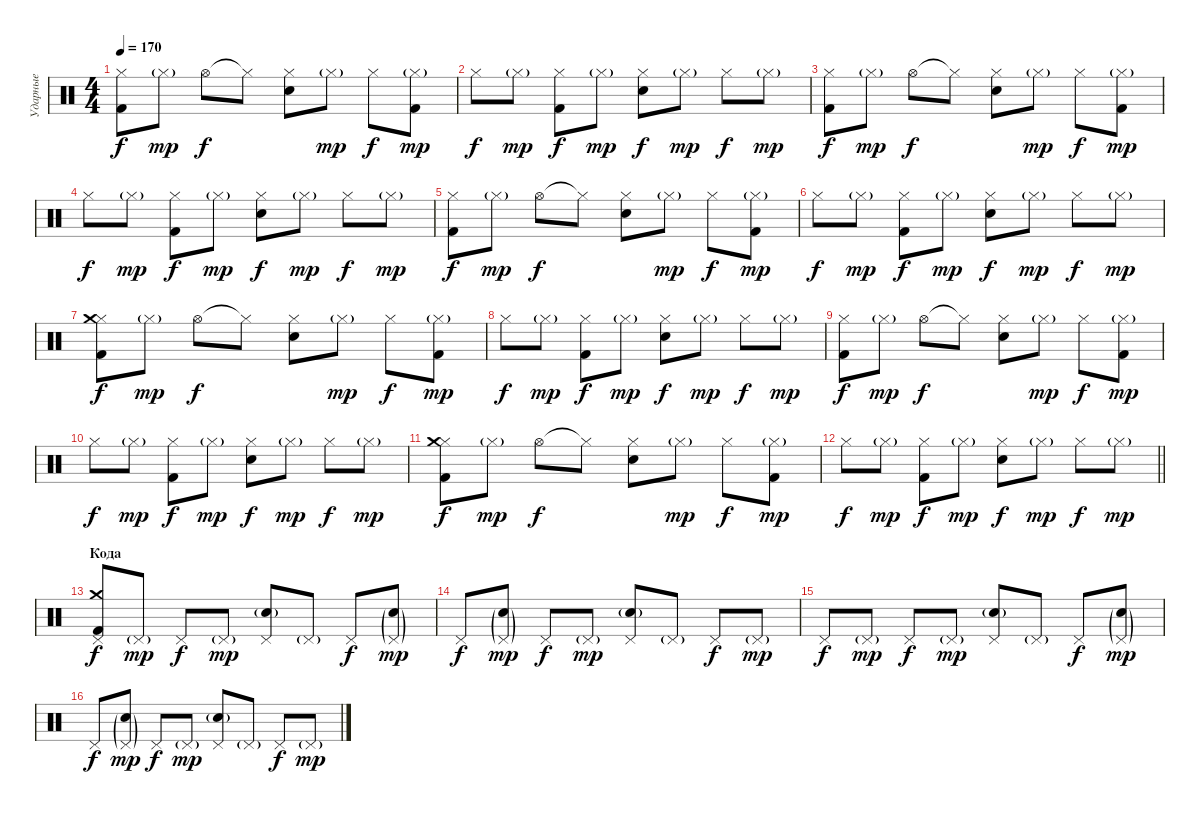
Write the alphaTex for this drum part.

\track ("Ударные" "Ударные") {instrument percussion}
\staff {score}
\articulation defaults
\ts (4 4)
\tempo 170
\clef neutral
\ks c
("Kick (hit) 2" "Hi-Hat (closed)").8{dy f} "Hi-Hat (closed)"{g}.8{dy mp} "Hi-Hat (open)".8{dy f} "Hi-Hat (closed)"{t}.8 ("Electric Snare (hit)" "Hi-Hat (closed)").8 "Hi-Hat (closed)"{g}.8{dy mp} "Hi-Hat (closed)".8{dy f} ("Kick (hit) 2" "Hi-Hat (closed)"{g}).8{dy mp} |
"Hi-Hat (closed)".8{dy f} "Hi-Hat (closed)"{g}.8{dy mp} ("Kick (hit) 2" "Hi-Hat (closed)").8{dy f} "Hi-Hat (closed)"{g}.8{dy mp} ("Electric Snare (hit)" "Hi-Hat (closed)").8{dy f} "Hi-Hat (closed)"{g}.8{dy mp} "Hi-Hat (closed)".8{dy f} "Hi-Hat (closed)"{g}.8{dy mp} |
("Kick (hit) 2" "Hi-Hat (closed)").8{dy f} "Hi-Hat (closed)"{g}.8{dy mp} "Hi-Hat (open)".8{dy f} "Hi-Hat (closed)"{t}.8 ("Electric Snare (hit)" "Hi-Hat (closed)").8 "Hi-Hat (closed)"{g}.8{dy mp} "Hi-Hat (closed)".8{dy f} ("Kick (hit) 2" "Hi-Hat (closed)"{g}).8{dy mp} |
"Hi-Hat (closed)".8{dy f} "Hi-Hat (closed)"{g}.8{dy mp} ("Kick (hit) 2" "Hi-Hat (closed)").8{dy f} "Hi-Hat (closed)"{g}.8{dy mp} ("Electric Snare (hit)" "Hi-Hat (closed)").8{dy f} "Hi-Hat (closed)"{g}.8{dy mp} "Hi-Hat (closed)".8{dy f} "Hi-Hat (closed)"{g}.8{dy mp} |
("Kick (hit) 2" "Hi-Hat (closed)").8{dy f} "Hi-Hat (closed)"{g}.8{dy mp} "Hi-Hat (open)".8{dy f} "Hi-Hat (closed)"{t}.8 ("Electric Snare (hit)" "Hi-Hat (closed)").8 "Hi-Hat (closed)"{g}.8{dy mp} "Hi-Hat (closed)".8{dy f} ("Kick (hit) 2" "Hi-Hat (closed)"{g}).8{dy mp} |
"Hi-Hat (closed)".8{dy f} "Hi-Hat (closed)"{g}.8{dy mp} ("Kick (hit) 2" "Hi-Hat (closed)").8{dy f} "Hi-Hat (closed)"{g}.8{dy mp} ("Electric Snare (hit)" "Hi-Hat (closed)").8{dy f} "Hi-Hat (closed)"{g}.8{dy mp} "Hi-Hat (closed)".8{dy f} "Hi-Hat (closed)"{g}.8{dy mp} |
("Kick (hit) 2" "Hi-Hat (closed)" "Crash medium (hit)").8{dy f} "Hi-Hat (closed)"{g}.8{dy mp} "Hi-Hat (open)".8{dy f} "Hi-Hat (closed)"{t}.8 ("Electric Snare (hit)" "Hi-Hat (closed)").8 "Hi-Hat (closed)"{g}.8{dy mp} "Hi-Hat (closed)".8{dy f} ("Kick (hit) 2" "Hi-Hat (closed)"{g}).8{dy mp} |
"Hi-Hat (closed)".8{dy f} "Hi-Hat (closed)"{g}.8{dy mp} ("Kick (hit) 2" "Hi-Hat (closed)").8{dy f} "Hi-Hat (closed)"{g}.8{dy mp} ("Electric Snare (hit)" "Hi-Hat (closed)").8{dy f} "Hi-Hat (closed)"{g}.8{dy mp} "Hi-Hat (closed)".8{dy f} "Hi-Hat (closed)"{g}.8{dy mp} |
("Kick (hit) 2" "Hi-Hat (closed)").8{dy f} "Hi-Hat (closed)"{g}.8{dy mp} "Hi-Hat (open)".8{dy f} "Hi-Hat (closed)"{t}.8 ("Electric Snare (hit)" "Hi-Hat (closed)").8 "Hi-Hat (closed)"{g}.8{dy mp} "Hi-Hat (closed)".8{dy f} ("Kick (hit) 2" "Hi-Hat (closed)"{g}).8{dy mp} |
"Hi-Hat (closed)".8{dy f} "Hi-Hat (closed)"{g}.8{dy mp} ("Kick (hit) 2" "Hi-Hat (closed)").8{dy f} "Hi-Hat (closed)"{g}.8{dy mp} ("Electric Snare (hit)" "Hi-Hat (closed)").8{dy f} "Hi-Hat (closed)"{g}.8{dy mp} "Hi-Hat (closed)".8{dy f} "Hi-Hat (closed)"{g}.8{dy mp} |
("Kick (hit) 2" "Hi-Hat (closed)" "Crash medium (hit)").8{dy f} "Hi-Hat (closed)"{g}.8{dy mp} "Hi-Hat (open)".8{dy f} "Hi-Hat (closed)"{t}.8 ("Electric Snare (hit)" "Hi-Hat (closed)").8 "Hi-Hat (closed)"{g}.8{dy mp} "Hi-Hat (closed)".8{dy f} ("Kick (hit) 2" "Hi-Hat (closed)"{g}).8{dy mp} |
\barLineRight lightlight "Hi-Hat (closed)".8{dy f} "Hi-Hat (closed)"{g}.8{dy mp}
("Kick (hit) 2" "Hi-Hat (closed)").8{dy f} "Hi-Hat (closed)"{g}.8{dy mp} ("Electric Snare (hit)" "Hi-Hat (closed)").8{dy f} "Hi-Hat (closed)"{g}.8{dy mp} "Hi-Hat (closed)".8{dy f} "Hi-Hat (closed)"{g}.8{dy mp} |
\section ("" "Кода")
("Pedal Hi-Hat (hit)" "Kick (hit) 2" "Crash medium (hit)").8{dy f} "Pedal Hi-Hat (hit)"{g}.8{dy mp} "Pedal Hi-Hat (hit)".8{dy f} "Pedal Hi-Hat (hit)"{g}.8{dy mp} ("Pedal Hi-Hat (hit)" "Electric Snare (hit)"{g}).8 "Pedal Hi-Hat (hit)"{g}.8 "Pedal Hi-Hat (hit)".8{dy f} ("Pedal Hi-Hat (hit)"{g} "Electric Snare (hit)"{g}).8{dy mp} |
"Pedal Hi-Hat (hit)".8{dy f} ("Pedal Hi-Hat (hit)"{g} "Electric Snare (hit)"{g}).8{dy mp} "Pedal Hi-Hat (hit)".8{dy f} "Pedal Hi-Hat (hit)"{g}.8{dy mp} ("Pedal Hi-Hat (hit)" "Electric Snare (hit)"{g}).8 "Pedal Hi-Hat (hit)"{g}.8 "Pedal Hi-Hat (hit)".8{dy f} "Pedal Hi-Hat (hit)"{g}.8{dy mp} |
"Pedal Hi-Hat (hit)".8{dy f} "Pedal Hi-Hat (hit)"{g}.8{dy mp} "Pedal Hi-Hat (hit)".8{dy f} "Pedal Hi-Hat (hit)"{g}.8{dy mp} ("Pedal Hi-Hat (hit)" "Electric Snare (hit)"{g}).8 "Pedal Hi-Hat (hit)"{g}.8 "Pedal Hi-Hat (hit)".8{dy f} ("Pedal Hi-Hat (hit)"{g} "Electric Snare (hit)"{g}).8{dy mp} |
"Pedal Hi-Hat (hit)".8{dy f} ("Pedal Hi-Hat (hit)"{g} "Electric Snare (hit)"{g}).8{dy mp} "Pedal Hi-Hat (hit)".8{dy f} "Pedal Hi-Hat (hit)"{g}.8{dy mp} ("Pedal Hi-Hat (hit)" "Electric Snare (hit)"{g}).8 "Pedal Hi-Hat (hit)"{g}.8 "Pedal Hi-Hat (hit)".8{dy f} "Pedal Hi-Hat (hit)"{g}.8{dy mp}
